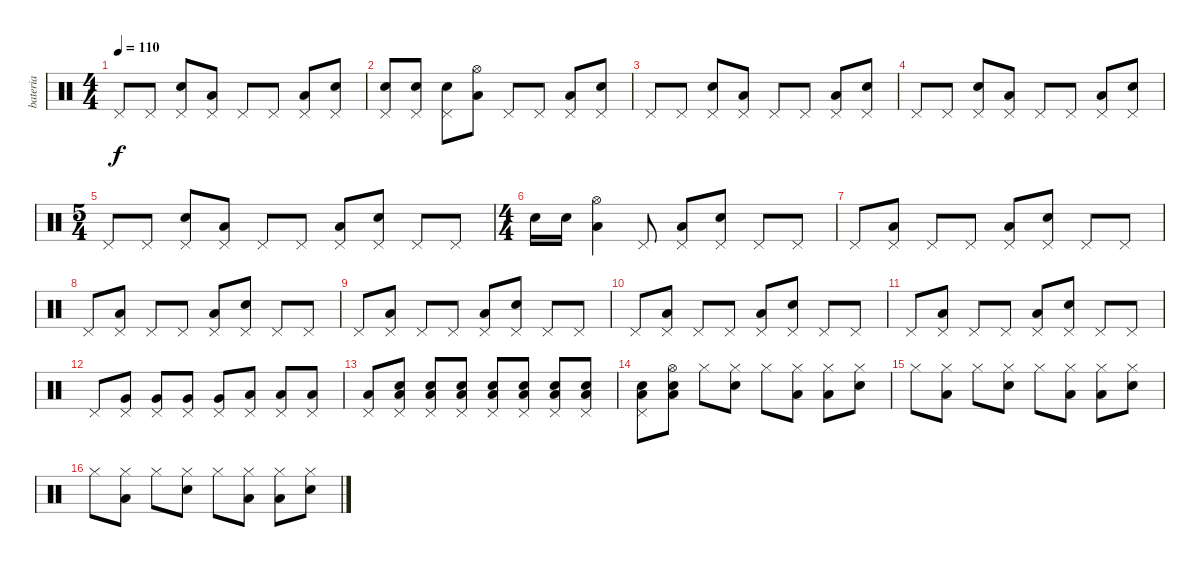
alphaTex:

\track ("bateria" "bateria") {instrument percussion}
\staff {score}
\articulation defaults
\ts (4 4)
\tempo 110
\clef neutral
\ks c "Pedal Hi-Hat (hit)".8{dy f} "Pedal Hi-Hat (hit)".8
("Pedal Hi-Hat (hit)" "Electric Snare (hit)").8 ("Pedal Hi-Hat (hit)" "Low Floor Tom (hit)").8 "Pedal Hi-Hat (hit)".8 "Pedal Hi-Hat (hit)".8 ("Pedal Hi-Hat (hit)" "Low Floor Tom (hit)").8 ("Pedal Hi-Hat (hit)" "Electric Snare (hit)").8 |
("Pedal Hi-Hat (hit)" "Electric Snare (hit)").8 ("Pedal Hi-Hat (hit)" "Electric Snare (hit)").8 ("Pedal Hi-Hat (hit)" "Electric Snare (hit)").8 ("Hi-Hat (open)" "Low Floor Tom (hit)").8 "Pedal Hi-Hat (hit)".8 "Pedal Hi-Hat (hit)".8 ("Pedal Hi-Hat (hit)" "Low Floor Tom (hit)").8 ("Pedal Hi-Hat (hit)" "Electric Snare (hit)").8 |
"Pedal Hi-Hat (hit)".8 "Pedal Hi-Hat (hit)".8 ("Pedal Hi-Hat (hit)" "Electric Snare (hit)").8 ("Pedal Hi-Hat (hit)" "Low Floor Tom (hit)").8 "Pedal Hi-Hat (hit)".8 "Pedal Hi-Hat (hit)".8 ("Pedal Hi-Hat (hit)" "Low Floor Tom (hit)").8 ("Pedal Hi-Hat (hit)" "Electric Snare (hit)").8 |
"Pedal Hi-Hat (hit)".8 "Pedal Hi-Hat (hit)".8 ("Pedal Hi-Hat (hit)" "Electric Snare (hit)").8 ("Pedal Hi-Hat (hit)" "Low Floor Tom (hit)").8 "Pedal Hi-Hat (hit)".8 "Pedal Hi-Hat (hit)".8 ("Pedal Hi-Hat (hit)" "Low Floor Tom (hit)").8 ("Pedal Hi-Hat (hit)" "Electric Snare (hit)").8 |
\ts (5 4)
"Pedal Hi-Hat (hit)".8 "Pedal Hi-Hat (hit)".8 ("Pedal Hi-Hat (hit)" "Electric Snare (hit)").8 ("Pedal Hi-Hat (hit)" "Low Floor Tom (hit)").8 "Pedal Hi-Hat (hit)".8 "Pedal Hi-Hat (hit)".8 ("Pedal Hi-Hat (hit)" "Low Floor Tom (hit)").8 ("Pedal Hi-Hat (hit)" "Electric Snare (hit)").8 "Pedal Hi-Hat (hit)".8 "Pedal Hi-Hat (hit)".8 |
\ts (4 4)
"Electric Snare (hit)".16 "Electric Snare (hit)".16 ("Hi-Hat (open)" "Low Floor Tom (hit)").4 "Pedal Hi-Hat (hit)".8 ("Pedal Hi-Hat (hit)" "Low Floor Tom (hit)").8 ("Pedal Hi-Hat (hit)" "Electric Snare (hit)").8 "Pedal Hi-Hat (hit)".8 "Pedal Hi-Hat (hit)".8 |
"Pedal Hi-Hat (hit)".8 ("Pedal Hi-Hat (hit)" "Low Floor Tom (hit)").8 "Pedal Hi-Hat (hit)".8 "Pedal Hi-Hat (hit)".8 ("Pedal Hi-Hat (hit)" "Low Floor Tom (hit)").8 ("Pedal Hi-Hat (hit)" "Electric Snare (hit)").8 "Pedal Hi-Hat (hit)".8 "Pedal Hi-Hat (hit)".8 |
"Pedal Hi-Hat (hit)".8 ("Pedal Hi-Hat (hit)" "Low Floor Tom (hit)").8 "Pedal Hi-Hat (hit)".8 "Pedal Hi-Hat (hit)".8 ("Pedal Hi-Hat (hit)" "Low Floor Tom (hit)").8 ("Pedal Hi-Hat (hit)" "Electric Snare (hit)").8 "Pedal Hi-Hat (hit)".8 "Pedal Hi-Hat (hit)".8 |
"Pedal Hi-Hat (hit)".8 ("Pedal Hi-Hat (hit)" "Low Floor Tom (hit)").8 "Pedal Hi-Hat (hit)".8 "Pedal Hi-Hat (hit)".8 ("Pedal Hi-Hat (hit)" "Low Floor Tom (hit)").8 ("Pedal Hi-Hat (hit)" "Electric Snare (hit)").8 "Pedal Hi-Hat (hit)".8 "Pedal Hi-Hat (hit)".8 |
"Pedal Hi-Hat (hit)".8 ("Pedal Hi-Hat (hit)" "Low Floor Tom (hit)").8 "Pedal Hi-Hat (hit)".8 "Pedal Hi-Hat (hit)".8 ("Pedal Hi-Hat (hit)" "Low Floor Tom (hit)").8 ("Pedal Hi-Hat (hit)" "Electric Snare (hit)").8 "Pedal Hi-Hat (hit)".8 "Pedal Hi-Hat (hit)".8 |
"Pedal Hi-Hat (hit)".8 ("Pedal Hi-Hat (hit)" "Low Floor Tom (hit)").8 "Pedal Hi-Hat (hit)".8 "Pedal Hi-Hat (hit)".8 ("Pedal Hi-Hat (hit)" "Low Floor Tom (hit)").8 ("Pedal Hi-Hat (hit)" "Electric Snare (hit)").8 "Pedal Hi-Hat (hit)".8 "Pedal Hi-Hat (hit)".8 |
"Pedal Hi-Hat (hit)".8 ("Pedal Hi-Hat (hit)" "Very Low Tom (hit)").8 ("Pedal Hi-Hat (hit)" "Very Low Tom (hit)").8 ("Pedal Hi-Hat (hit)" "Very Low Tom (hit)").8 ("Pedal Hi-Hat (hit)" "Very Low Tom (hit)").8 ("Pedal Hi-Hat (hit)" "Low Floor Tom (hit)").8 ("Pedal Hi-Hat (hit)" "Low Floor Tom (hit)").8 ("Pedal Hi-Hat (hit)" "Low Floor Tom (hit)").8 |
("Pedal Hi-Hat (hit)" "Low Floor Tom (hit)").8 ("Pedal Hi-Hat (hit)" "Electric Snare (hit)" "Low Floor Tom (hit)").8 ("Pedal Hi-Hat (hit)" "Electric Snare (hit)" "Low Floor Tom (hit)").8 ("Pedal Hi-Hat (hit)" "Electric Snare (hit)" "Low Floor Tom (hit)").8 ("Pedal Hi-Hat (hit)" "Electric Snare (hit)" "Low Floor Tom (hit)").8 ("Pedal Hi-Hat (hit)" "Electric Snare (hit)" "Low Floor Tom (hit)").8 ("Pedal Hi-Hat (hit)" "Electric Snare (hit)" "Low Floor Tom (hit)").8 ("Pedal Hi-Hat (hit)" "Electric Snare (hit)" "Low Floor Tom (hit)").8 |
("Pedal Hi-Hat (hit)" "Electric Snare (hit)" "Low Floor Tom (hit)").8 ("Hi-Hat (open)" "Electric Snare (hit)" "Low Floor Tom (hit)").8 "Hi-Hat (closed)".8 ("Hi-Hat (closed)" "Electric Snare (hit)").8 "Hi-Hat (closed)".8 ("Hi-Hat (closed)" "Low Floor Tom (hit)").8 ("Hi-Hat (closed)" "Low Floor Tom (hit)").8 ("Hi-Hat (closed)" "Electric Snare (hit)").8 |
"Hi-Hat (closed)".8 ("Hi-Hat (closed)" "Low Floor Tom (hit)").8 "Hi-Hat (closed)".8 ("Hi-Hat (closed)" "Electric Snare (hit)").8 "Hi-Hat (closed)".8 ("Hi-Hat (closed)" "Low Floor Tom (hit)").8 ("Hi-Hat (closed)" "Low Floor Tom (hit)").8 ("Hi-Hat (closed)" "Electric Snare (hit)").8 |
"Hi-Hat (closed)".8 ("Hi-Hat (closed)" "Low Floor Tom (hit)").8 "Hi-Hat (closed)".8 ("Hi-Hat (closed)" "Electric Snare (hit)").8 "Hi-Hat (closed)".8 ("Hi-Hat (closed)" "Low Floor Tom (hit)").8 ("Hi-Hat (closed)" "Low Floor Tom (hit)").8 ("Hi-Hat (closed)" "Electric Snare (hit)").8
